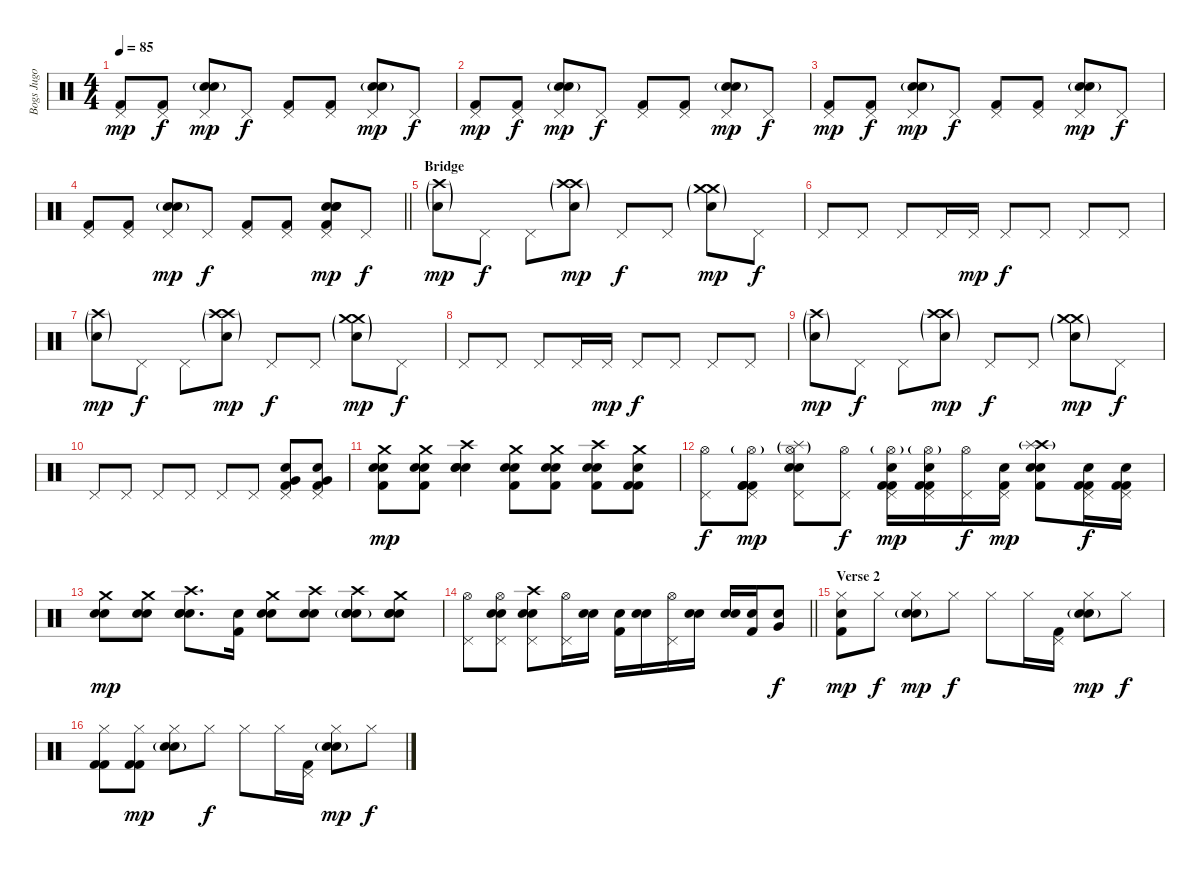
\track ("Bogs Jugo" "Bogs Jugo") {instrument percussion}
\staff {score}
\articulation defaults
\ts (4 4)
\tempo 85
\clef neutral
\ks c
("Pedal Hi-Hat (hit)" "Kick (hit) 2").8{dy mp} ("Pedal Hi-Hat (hit)" "Kick (hit) 2").8{dy f} ("Pedal Hi-Hat (hit)" "Electric Snare (hit)" "Snare (hit) 2"{g}).8{dy mp} "Pedal Hi-Hat (hit)".8{dy f} ("Pedal Hi-Hat (hit)" "Kick (hit) 2").8 ("Pedal Hi-Hat (hit)" "Kick (hit) 2").8 ("Pedal Hi-Hat (hit)" "Electric Snare (hit)" "Snare (hit) 2"{g}).8{dy mp} "Pedal Hi-Hat (hit)".8{dy f} |
("Pedal Hi-Hat (hit)" "Kick (hit) 2").8{dy mp} ("Pedal Hi-Hat (hit)" "Kick (hit) 2").8{dy f} ("Pedal Hi-Hat (hit)" "Electric Snare (hit)" "Snare (hit) 2"{g}).8{dy mp} "Pedal Hi-Hat (hit)".8{dy f} ("Pedal Hi-Hat (hit)" "Kick (hit) 2").8 ("Pedal Hi-Hat (hit)" "Kick (hit) 2").8 ("Pedal Hi-Hat (hit)" "Electric Snare (hit)" "Snare (hit) 2"{g}).8{dy mp} "Pedal Hi-Hat (hit)".8{dy f} |
("Pedal Hi-Hat (hit)" "Kick (hit) 2").8{dy mp} ("Pedal Hi-Hat (hit)" "Kick (hit) 2").8{dy f} ("Pedal Hi-Hat (hit)" "Electric Snare (hit)" "Snare (hit) 2"{g}).8{dy mp} "Pedal Hi-Hat (hit)".8{dy f} ("Pedal Hi-Hat (hit)" "Kick (hit) 2").8 ("Pedal Hi-Hat (hit)" "Kick (hit) 2").8 ("Pedal Hi-Hat (hit)" "Electric Snare (hit)" "Snare (hit) 2"{g}).8{dy mp} "Pedal Hi-Hat (hit)".8{dy f} |
\barLineRight lightlight
("Pedal Hi-Hat (hit)" "Kick (hit) 2").8 ("Pedal Hi-Hat (hit)" "Kick (hit) 2").8 ("Pedal Hi-Hat (hit)" "Electric Snare (hit)" "Snare (hit) 2"{g}).8{dy mp} "Pedal Hi-Hat (hit)".8{dy f} ("Pedal Hi-Hat (hit)" "Kick (hit) 2").8 ("Pedal Hi-Hat (hit)" "Kick (hit) 2").8 ("Pedal Hi-Hat (hit)" "Electric Snare (hit)" "Electric Snare (hit)" "Snare (hit) 2" "Kick (hit) 2").8{dy mp} "Pedal Hi-Hat (hit)".8{dy f} |
\section ("" "Bridge")
("Crash high (hit)"{g} "Electric Snare (hit)"{g}).8{dy mp} "Pedal Hi-Hat (hit)".8{dy f} "Pedal Hi-Hat (hit)".8 ("Crash high (hit)"{g} "Electric Snare (hit)"{g} "Crash high (hit)"{g}).8{dy mp} "Pedal Hi-Hat (hit)".8{dy f} "Pedal Hi-Hat (hit)".8 ("Crash medium (hit)"{g} "Electric Snare (hit)"{g} "Crash medium (hit)"{g}).8{dy mp} "Pedal Hi-Hat (hit)".8{dy f} |
"Pedal Hi-Hat (hit)".8 "Pedal Hi-Hat (hit)".8 "Pedal Hi-Hat (hit)".8 "Pedal Hi-Hat (hit)".16 "Pedal Hi-Hat (hit)".16{dy mp} "Pedal Hi-Hat (hit)".8{dy f} "Pedal Hi-Hat (hit)".8 "Pedal Hi-Hat (hit)".8 "Pedal Hi-Hat (hit)".8 |
("Crash high (hit)"{g} "Electric Snare (hit)"{g}).8{dy mp} "Pedal Hi-Hat (hit)".8{dy f} "Pedal Hi-Hat (hit)".8 ("Crash high (hit)"{g} "Electric Snare (hit)"{g} "Crash high (hit)"{g}).8{dy mp} "Pedal Hi-Hat (hit)".8{dy f} "Pedal Hi-Hat (hit)".8 ("Crash medium (hit)"{g} "Electric Snare (hit)"{g} "Crash medium (hit)"{g}).8{dy mp} "Pedal Hi-Hat (hit)".8{dy f} |
"Pedal Hi-Hat (hit)".8 "Pedal Hi-Hat (hit)".8 "Pedal Hi-Hat (hit)".8 "Pedal Hi-Hat (hit)".16 "Pedal Hi-Hat (hit)".16{dy mp} "Pedal Hi-Hat (hit)".8{dy f} "Pedal Hi-Hat (hit)".8 "Pedal Hi-Hat (hit)".8 "Pedal Hi-Hat (hit)".8 |
("Crash high (hit)"{g} "Electric Snare (hit)"{g}).8{dy mp} "Pedal Hi-Hat (hit)".8{dy f} "Pedal Hi-Hat (hit)".8 ("Crash high (hit)"{g} "Electric Snare (hit)"{g} "Crash high (hit)"{g}).8{dy mp} "Pedal Hi-Hat (hit)".8{dy f} "Pedal Hi-Hat (hit)".8 ("Crash medium (hit)"{g} "Electric Snare (hit)"{g} "Crash medium (hit)"{g}).8{dy mp} "Pedal Hi-Hat (hit)".8{dy f} |
"Pedal Hi-Hat (hit)".8 "Pedal Hi-Hat (hit)".8 "Pedal Hi-Hat (hit)".8 "Pedal Hi-Hat (hit)".8 "Pedal Hi-Hat (hit)".8 "Pedal Hi-Hat (hit)".8 ("Pedal Hi-Hat (hit)" "Electric Snare (hit)" "Very Low Tom (hit)" "Kick (hit) 2").8 ("Pedal Hi-Hat (hit)" "Electric Snare (hit)" "Very Low Tom (hit)" "Kick (hit) 2").8 |
("Crash medium (hit)" "Electric Snare (hit)" "Snare (hit) 2" "Kick (hit) 2").8{dy mp} ("Crash medium (hit)" "Electric Snare (hit)" "Snare (hit) 2" "Kick (hit) 2").8 ("Crash high (hit)" "Electric Snare (hit)" "Snare (hit) 2" "Snare (hit) 2").4 ("Crash medium (hit)" "Electric Snare (hit)" "Snare (hit) 2" "Kick (hit) 2").8 ("Crash medium (hit)" "Electric Snare (hit)" "Snare (hit) 2" "Kick (hit) 2").8 ("Crash high (hit)" "Electric Snare (hit)" "Snare (hit) 2" "Kick (hit) 2").8 ("Crash medium (hit)" "Kick (hit) 2" "Kick (hit) 2" "Electric Snare (hit)").8 |
("Pedal Hi-Hat (hit)" "Hi-Hat (open)").8{dy f} ("Pedal Hi-Hat (hit)" "Hi-Hat (open)"{g} "Kick (hit) 2" "Kick (hit) 2" "Kick (hit) 2").8{dy mp} ("Pedal Hi-Hat (hit)" "Hi-Hat (open)"{g} "Electric Snare (hit)" "Snare (hit) 2" "Splash (hit)"{g}).8 ("Pedal Hi-Hat (hit)" "Hi-Hat (open)").8{dy f} ("Pedal Hi-Hat (hit)" "Hi-Hat (open)"{g} "Kick (hit) 2" "Kick (hit) 2" "Electric Snare (hit)").16{dy mp} ("Pedal Hi-Hat (hit)" "Hi-Hat (open)"{g} "Kick (hit) 2" "Kick (hit) 2" "Electric Snare (hit)").16 ("Pedal Hi-Hat (hit)" "Hi-Hat (open)").16{dy f} ("Pedal Hi-Hat (hit)" "Electric Snare (hit)" "Kick (hit) 2").16{dy mp} ("Crash high (hit)" "Electric Snare (hit)" "Snare (hit) 2" "Kick (hit) 2" "Splash (hit)"{g}).8 ("Pedal Hi-Hat (hit)" "Electric Snare (hit)" "Kick (hit) 2" "Kick (hit) 2").16{dy f} ("Pedal Hi-Hat (hit)" "Electric Snare (hit)" "Kick (hit) 2" "Kick (hit) 2").16 |
("Crash medium (hit)" "Electric Snare (hit)" "Snare (hit) 2").8{dy mp} ("Crash medium (hit)" "Electric Snare (hit)" "Snare (hit) 2").8 ("Crash high (hit)" "Electric Snare (hit)" "Snare (hit) 2" "Snare (hit) 2").8{d} ("Electric Snare (hit)" "Kick (hit) 2").16 ("Crash medium (hit)" "Electric Snare (hit)" "Snare (hit) 2").8 ("Crash high (hit)" "Electric Snare (hit)" "Snare (hit) 2").8 ("Crash high (hit)" "Electric Snare (hit)" "Electric Snare (hit)" "Snare (hit) 2"{g}).8 ("Electric Snare (hit)" "Electric Snare (hit)" "Snare (hit) 2" "Crash medium (hit)").8 |
\barLineRight lightlight
("Pedal Hi-Hat (hit)" "Hi-Hat (open)").8 ("Pedal Hi-Hat (hit)" "Electric Snare (hit)" "Snare (hit) 2" "Hi-Hat (open)").8 ("Pedal Hi-Hat (hit)" "Electric Snare (hit)" "Electric Snare (hit)" "Crash high (hit)").8 ("Pedal Hi-Hat (hit)" "Hi-Hat (open)").16 ("Electric Snare (hit)" "Snare (hit) 2").16 ("Electric Snare (hit)" "Kick (hit) 2").16 ("Electric Snare (hit)" "Electric Snare (hit)").16 ("Pedal Hi-Hat (hit)" "Hi-Hat (open)").16 ("Electric Snare (hit)" "Snare (hit) 2").16 ("Electric Snare (hit)" "Snare (hit) 2").16 ("Electric Snare (hit)" "Kick (hit) 2").16 ("Electric Snare (hit)" "Very Low Tom (hit)").8{dy f} |
\section ("" "Verse 2")
("Hi-Hat (closed)" "Kick (hit) 2" "Electric Snare (hit)").8{dy mp} "Hi-Hat (closed)".8{dy f} ("Hi-Hat (closed)" "Electric Snare (hit)" "Snare (hit) 2"{g}).8{dy mp} "Hi-Hat (closed)".8{dy f} "Hi-Hat (closed)".8 "Hi-Hat (closed)".16 ("Pedal Hi-Hat (hit)" "Kick (hit) 2").16 ("Hi-Hat (closed)" "Electric Snare (hit)" "Snare (hit) 2"{g}).8{dy mp} "Hi-Hat (closed)".8{dy f} |
("Hi-Hat (closed)" "Kick (hit) 2" "Kick (hit) 2").8 ("Hi-Hat (closed)" "Kick (hit) 2" "Kick (hit) 2").8{dy mp} ("Hi-Hat (closed)" "Electric Snare (hit)" "Snare (hit) 2"{g}).8 "Hi-Hat (closed)".8{dy f} "Hi-Hat (closed)".8 "Hi-Hat (closed)".16 ("Pedal Hi-Hat (hit)" "Kick (hit) 2").16 ("Hi-Hat (closed)" "Electric Snare (hit)" "Snare (hit) 2"{g}).8{dy mp} "Hi-Hat (closed)".8{dy f}
